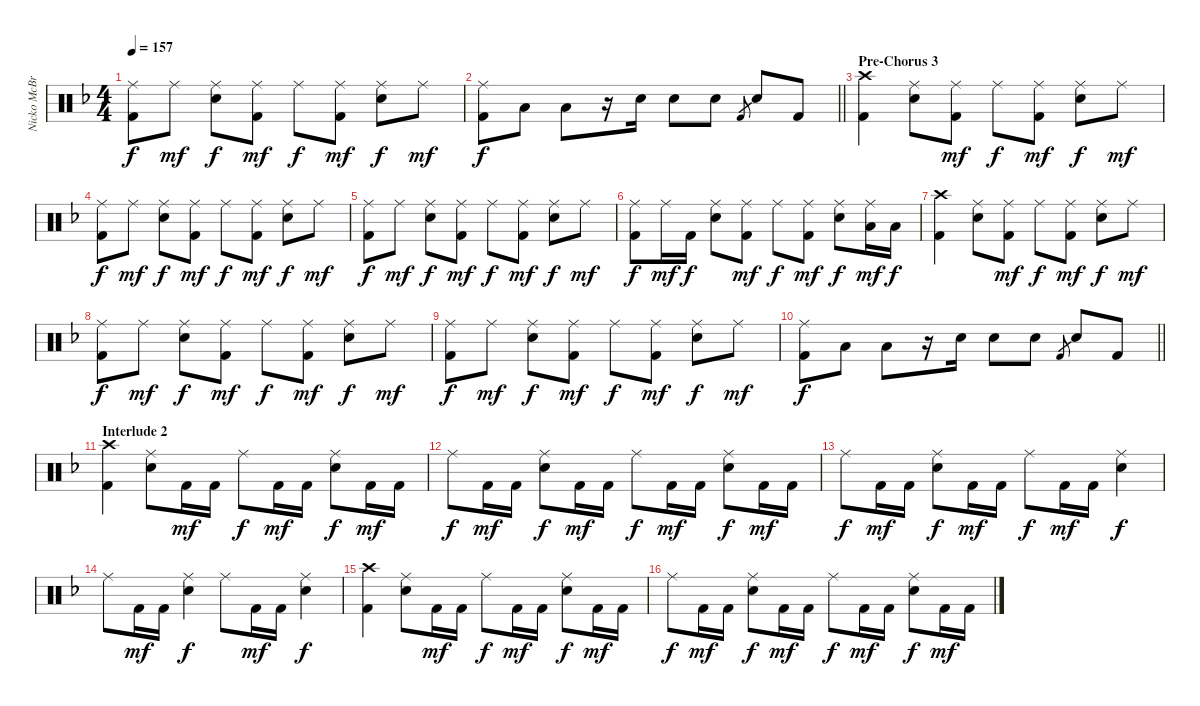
\track ("Nicko McBrain" "Nicko McBr") {instrument percussion}
\staff {score}
\articulation defaults
\ts (4 4)
\tempo 157
\clef neutral
\ks f
("Ride (middle)" "Kick (hit) 2").8{dy f} "Ride (middle)".8{dy mf} ("Ride (middle)" "Electric Snare (hit)").8{dy f} ("Ride (middle)" "Kick (hit) 2").8{dy mf} "Ride (middle)".8{dy f} ("Ride (middle)" "Kick (hit) 2").8{dy mf} ("Ride (middle)" "Electric Snare (hit)").8{dy f} "Ride (middle)".8{dy mf} |
\barLineRight lightlight
("Ride (middle)" "Kick (hit) 2").8{dy f} "Low Tom (hit)".8 "Low Tom (hit)".8 r.16 "Electric Snare (hit)".16 "Electric Snare (hit)".8 "Electric Snare (hit)".8 "Kick (hit) 2".8{gr} "Electric Snare (hit)".8 "Kick (hit) 2".8 |
\section ("" "Pre-Chorus 3")
("Crash high (hit)" "Kick (hit) 2").4 ("Ride (middle)" "Electric Snare (hit)").8 ("Ride (middle)" "Kick (hit) 2").8{dy mf} "Ride (middle)".8{dy f} ("Ride (middle)" "Kick (hit) 2").8{dy mf} ("Ride (middle)" "Electric Snare (hit)").8{dy f} "Ride (middle)".8{dy mf} |
("Ride (middle)" "Kick (hit) 2").8{dy f} "Ride (middle)".8{dy mf} ("Ride (middle)" "Electric Snare (hit)").8{dy f} ("Ride (middle)" "Kick (hit) 2").8{dy mf} "Ride (middle)".8{dy f} ("Ride (middle)" "Kick (hit) 2").8{dy mf} ("Ride (middle)" "Electric Snare (hit)").8{dy f} "Ride (middle)".8{dy mf} |
("Ride (middle)" "Kick (hit) 2").8{dy f} "Ride (middle)".8{dy mf} ("Ride (middle)" "Electric Snare (hit)").8{dy f} ("Ride (middle)" "Kick (hit) 2").8{dy mf} "Ride (middle)".8{dy f} ("Ride (middle)" "Kick (hit) 2").8{dy mf} ("Ride (middle)" "Electric Snare (hit)").8{dy f} "Ride (middle)".8{dy mf} |
("Ride (middle)" "Kick (hit) 2").8{dy f} "Ride (middle)".16{dy mf} "Kick (hit) 2".16{dy f} ("Ride (middle)" "Electric Snare (hit)").8 ("Ride (middle)" "Kick (hit) 2").8{dy mf} "Ride (middle)".8{dy f} ("Ride (middle)" "Kick (hit) 2").8{dy mf} ("Ride (middle)" "Electric Snare (hit)").8{dy f} ("Ride (middle)" "Low Tom (hit)").16{dy mf} "Low Tom (hit)".16{dy f} |
("Crash high (hit)" "Kick (hit) 2").4 ("Ride (middle)" "Electric Snare (hit)").8 ("Ride (middle)" "Kick (hit) 2").8{dy mf} "Ride (middle)".8{dy f} ("Ride (middle)" "Kick (hit) 2").8{dy mf} ("Ride (middle)" "Electric Snare (hit)").8{dy f} "Ride (middle)".8{dy mf} |
("Ride (middle)" "Kick (hit) 2").8{dy f} "Ride (middle)".8{dy mf} ("Ride (middle)" "Electric Snare (hit)").8{dy f} ("Ride (middle)" "Kick (hit) 2").8{dy mf} "Ride (middle)".8{dy f} ("Ride (middle)" "Kick (hit) 2").8{dy mf} ("Ride (middle)" "Electric Snare (hit)").8{dy f} "Ride (middle)".8{dy mf} |
("Ride (middle)" "Kick (hit) 2").8{dy f} "Ride (middle)".8{dy mf} ("Ride (middle)" "Electric Snare (hit)").8{dy f} ("Ride (middle)" "Kick (hit) 2").8{dy mf} "Ride (middle)".8{dy f} ("Ride (middle)" "Kick (hit) 2").8{dy mf} ("Ride (middle)" "Electric Snare (hit)").8{dy f} "Ride (middle)".8{dy mf} |
\barLineRight lightlight
("Ride (middle)" "Kick (hit) 2").8{dy f} "Low Tom (hit)".8 "Low Tom (hit)".8 r.16 "Electric Snare (hit)".16 "Electric Snare (hit)".8 "Electric Snare (hit)".8 "Kick (hit) 2".8{gr} "Electric Snare (hit)".8 "Kick (hit) 2".8 |
\section ("" "Interlude 2")
("Crash high (hit)" "Kick (hit) 2").4 ("Ride (middle)" "Electric Snare (hit)").8 "Kick (hit) 2".16{dy mf} "Kick (hit) 2".16 "Ride (middle)".8{dy f} "Kick (hit) 2".16{dy mf} "Kick (hit) 2".16 ("Ride (middle)" "Electric Snare (hit)").8{dy f} "Kick (hit) 2".16{dy mf} "Kick (hit) 2".16 |
"Ride (middle)".8{dy f} "Kick (hit) 2".16{dy mf} "Kick (hit) 2".16 ("Ride (middle)" "Electric Snare (hit)").8{dy f} "Kick (hit) 2".16{dy mf} "Kick (hit) 2".16 "Ride (middle)".8{dy f} "Kick (hit) 2".16{dy mf} "Kick (hit) 2".16 ("Ride (middle)" "Electric Snare (hit)").8{dy f} "Kick (hit) 2".16{dy mf} "Kick (hit) 2".16 |
"Ride (middle)".8{dy f} "Kick (hit) 2".16{dy mf} "Kick (hit) 2".16 ("Ride (middle)" "Electric Snare (hit)").8{dy f} "Kick (hit) 2".16{dy mf} "Kick (hit) 2".16 "Ride (middle)".8{dy f} "Kick (hit) 2".16{dy mf} "Kick (hit) 2".16 ("Ride (middle)" "Electric Snare (hit)").4{dy f} |
"Ride (middle)".8 "Kick (hit) 2".16{dy mf} "Kick (hit) 2".16 ("Ride (middle)" "Electric Snare (hit)").4{dy f} "Ride (middle)".8 "Kick (hit) 2".16{dy mf} "Kick (hit) 2".16 ("Ride (middle)" "Electric Snare (hit)").4{dy f} |
("Crash high (hit)" "Kick (hit) 2").4 ("Ride (middle)" "Electric Snare (hit)").8 "Kick (hit) 2".16{dy mf} "Kick (hit) 2".16 "Ride (middle)".8{dy f} "Kick (hit) 2".16{dy mf} "Kick (hit) 2".16 ("Ride (middle)" "Electric Snare (hit)").8{dy f} "Kick (hit) 2".16{dy mf} "Kick (hit) 2".16 |
"Ride (middle)".8{dy f} "Kick (hit) 2".16{dy mf} "Kick (hit) 2".16 ("Ride (middle)" "Electric Snare (hit)").8{dy f} "Kick (hit) 2".16{dy mf} "Kick (hit) 2".16 "Ride (middle)".8{dy f} "Kick (hit) 2".16{dy mf} "Kick (hit) 2".16 ("Ride (middle)" "Electric Snare (hit)").8{dy f} "Kick (hit) 2".16{dy mf} "Kick (hit) 2".16
